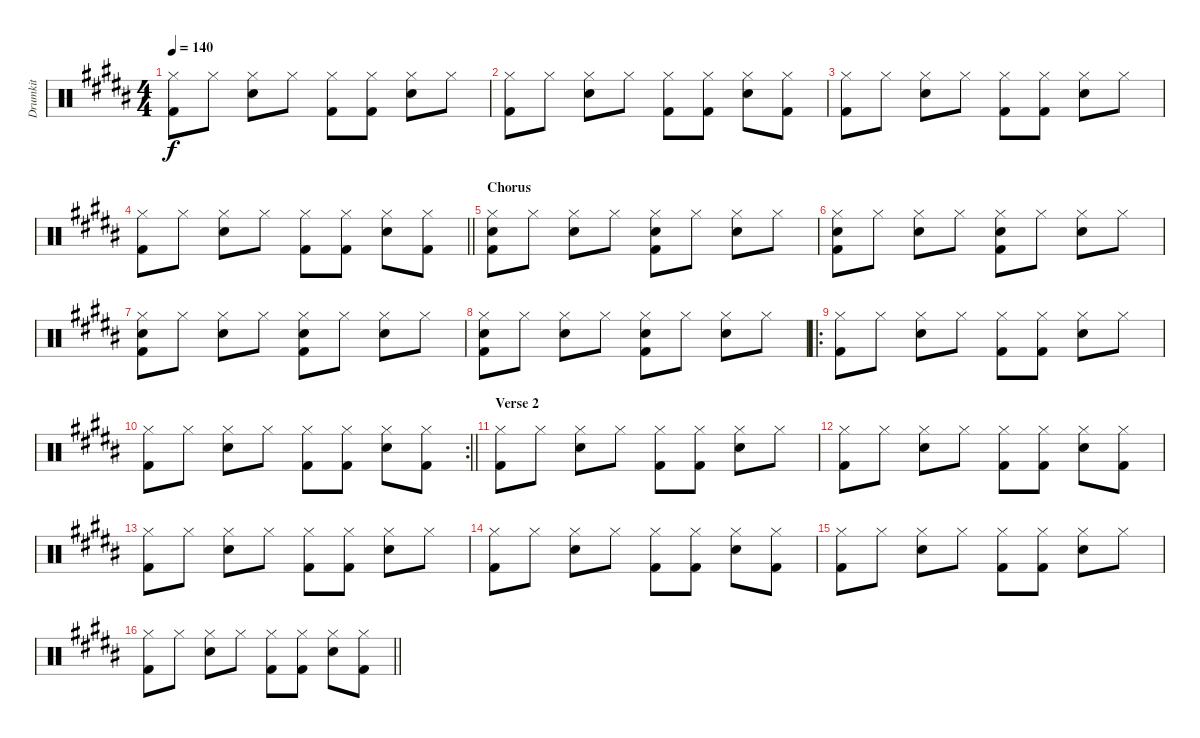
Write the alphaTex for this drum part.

\track ("Drumkit" "Drumkit") {instrument percussion}
\staff {score}
\articulation defaults
\ts (4 4)
\tempo 140
\clef neutral
\ks b
("Hi-Hat (closed)" "Kick (hit) 2").8{dy f} "Hi-Hat (closed)".8 ("Hi-Hat (closed)" "Snare (hit) 2").8 "Hi-Hat (closed)".8 ("Hi-Hat (closed)" "Kick (hit) 2").8 ("Hi-Hat (closed)" "Kick (hit) 2").8 ("Hi-Hat (closed)" "Snare (hit) 2").8 "Hi-Hat (closed)".8 |
("Hi-Hat (closed)" "Kick (hit) 2").8 "Hi-Hat (closed)".8 ("Hi-Hat (closed)" "Snare (hit) 2").8 "Hi-Hat (closed)".8 ("Hi-Hat (closed)" "Kick (hit) 2").8 ("Hi-Hat (closed)" "Kick (hit) 2").8 ("Hi-Hat (closed)" "Snare (hit) 2").8 ("Hi-Hat (closed)" "Kick (hit) 2").8 |
("Hi-Hat (closed)" "Kick (hit) 2").8 "Hi-Hat (closed)".8 ("Hi-Hat (closed)" "Snare (hit) 2").8 "Hi-Hat (closed)".8 ("Hi-Hat (closed)" "Kick (hit) 2").8 ("Hi-Hat (closed)" "Kick (hit) 2").8 ("Hi-Hat (closed)" "Snare (hit) 2").8 "Hi-Hat (closed)".8 |
\barLineRight lightlight
("Hi-Hat (closed)" "Kick (hit) 2").8 "Hi-Hat (closed)".8 ("Hi-Hat (closed)" "Snare (hit) 2").8 "Hi-Hat (closed)".8 ("Hi-Hat (closed)" "Kick (hit) 2").8 ("Hi-Hat (closed)" "Kick (hit) 2").8 ("Hi-Hat (closed)" "Snare (hit) 2").8 ("Hi-Hat (closed)" "Kick (hit) 2").8 |
\section ("" "Chorus")
("Hi-Hat (closed)" "Snare (hit) 2" "Kick (hit) 2").8 "Hi-Hat (closed)".8 ("Hi-Hat (closed)" "Snare (hit) 2").8 "Hi-Hat (closed)".8 ("Hi-Hat (closed)" "Snare (hit) 2" "Kick (hit) 2").8 "Hi-Hat (closed)".8 ("Hi-Hat (closed)" "Snare (hit) 2").8 "Hi-Hat (closed)".8 |
("Hi-Hat (closed)" "Snare (hit) 2" "Kick (hit) 2").8 "Hi-Hat (closed)".8 ("Hi-Hat (closed)" "Snare (hit) 2").8 "Hi-Hat (closed)".8 ("Hi-Hat (closed)" "Snare (hit) 2" "Kick (hit) 2").8 "Hi-Hat (closed)".8 ("Hi-Hat (closed)" "Snare (hit) 2").8 "Hi-Hat (closed)".8 |
("Hi-Hat (closed)" "Snare (hit) 2" "Kick (hit) 2").8 "Hi-Hat (closed)".8 ("Hi-Hat (closed)" "Snare (hit) 2").8 "Hi-Hat (closed)".8 ("Hi-Hat (closed)" "Snare (hit) 2" "Kick (hit) 2").8 "Hi-Hat (closed)".8 ("Hi-Hat (closed)" "Snare (hit) 2").8 "Hi-Hat (closed)".8 |
("Hi-Hat (closed)" "Snare (hit) 2" "Kick (hit) 2").8 "Hi-Hat (closed)".8 ("Hi-Hat (closed)" "Snare (hit) 2").8 "Hi-Hat (closed)".8 ("Hi-Hat (closed)" "Snare (hit) 2" "Kick (hit) 2").8 "Hi-Hat (closed)".8 ("Hi-Hat (closed)" "Snare (hit) 2").8 "Hi-Hat (closed)".8 |
\ro
("Hi-Hat (closed)" "Kick (hit) 2").8 "Hi-Hat (closed)".8 ("Hi-Hat (closed)" "Snare (hit) 2").8 "Hi-Hat (closed)".8 ("Hi-Hat (closed)" "Kick (hit) 2").8 ("Hi-Hat (closed)" "Kick (hit) 2").8 ("Hi-Hat (closed)" "Snare (hit) 2").8 "Hi-Hat (closed)".8 |
\rc 2
\barLineRight lightlight
("Hi-Hat (closed)" "Kick (hit) 2").8 "Hi-Hat (closed)".8 ("Hi-Hat (closed)" "Snare (hit) 2").8 "Hi-Hat (closed)".8 ("Hi-Hat (closed)" "Kick (hit) 2").8 ("Hi-Hat (closed)" "Kick (hit) 2").8 ("Hi-Hat (closed)" "Snare (hit) 2").8 ("Hi-Hat (closed)" "Kick (hit) 2").8 |
\section ("" "Verse 2")
("Hi-Hat (closed)" "Kick (hit) 2").8 "Hi-Hat (closed)".8 ("Hi-Hat (closed)" "Snare (hit) 2").8 "Hi-Hat (closed)".8 ("Hi-Hat (closed)" "Kick (hit) 2").8 ("Hi-Hat (closed)" "Kick (hit) 2").8 ("Hi-Hat (closed)" "Snare (hit) 2").8 "Hi-Hat (closed)".8 |
("Hi-Hat (closed)" "Kick (hit) 2").8 "Hi-Hat (closed)".8 ("Hi-Hat (closed)" "Snare (hit) 2").8 "Hi-Hat (closed)".8 ("Hi-Hat (closed)" "Kick (hit) 2").8 ("Hi-Hat (closed)" "Kick (hit) 2").8 ("Hi-Hat (closed)" "Snare (hit) 2").8 ("Hi-Hat (closed)" "Kick (hit) 2").8 |
("Hi-Hat (closed)" "Kick (hit) 2").8 "Hi-Hat (closed)".8 ("Hi-Hat (closed)" "Snare (hit) 2").8 "Hi-Hat (closed)".8 ("Hi-Hat (closed)" "Kick (hit) 2").8 ("Hi-Hat (closed)" "Kick (hit) 2").8 ("Hi-Hat (closed)" "Snare (hit) 2").8 "Hi-Hat (closed)".8 |
("Hi-Hat (closed)" "Kick (hit) 2").8 "Hi-Hat (closed)".8 ("Hi-Hat (closed)" "Snare (hit) 2").8 "Hi-Hat (closed)".8 ("Hi-Hat (closed)" "Kick (hit) 2").8 ("Hi-Hat (closed)" "Kick (hit) 2").8 ("Hi-Hat (closed)" "Snare (hit) 2").8 ("Hi-Hat (closed)" "Kick (hit) 2").8 |
("Hi-Hat (closed)" "Kick (hit) 2").8 "Hi-Hat (closed)".8 ("Hi-Hat (closed)" "Snare (hit) 2").8 "Hi-Hat (closed)".8 ("Hi-Hat (closed)" "Kick (hit) 2").8 ("Hi-Hat (closed)" "Kick (hit) 2").8 ("Hi-Hat (closed)" "Snare (hit) 2").8 "Hi-Hat (closed)".8 |
\barLineRight lightlight
("Hi-Hat (closed)" "Kick (hit) 2").8 "Hi-Hat (closed)".8 ("Hi-Hat (closed)" "Snare (hit) 2").8 "Hi-Hat (closed)".8 ("Hi-Hat (closed)" "Kick (hit) 2").8 ("Hi-Hat (closed)" "Kick (hit) 2").8 ("Hi-Hat (closed)" "Snare (hit) 2").8 ("Hi-Hat (closed)" "Kick (hit) 2").8
